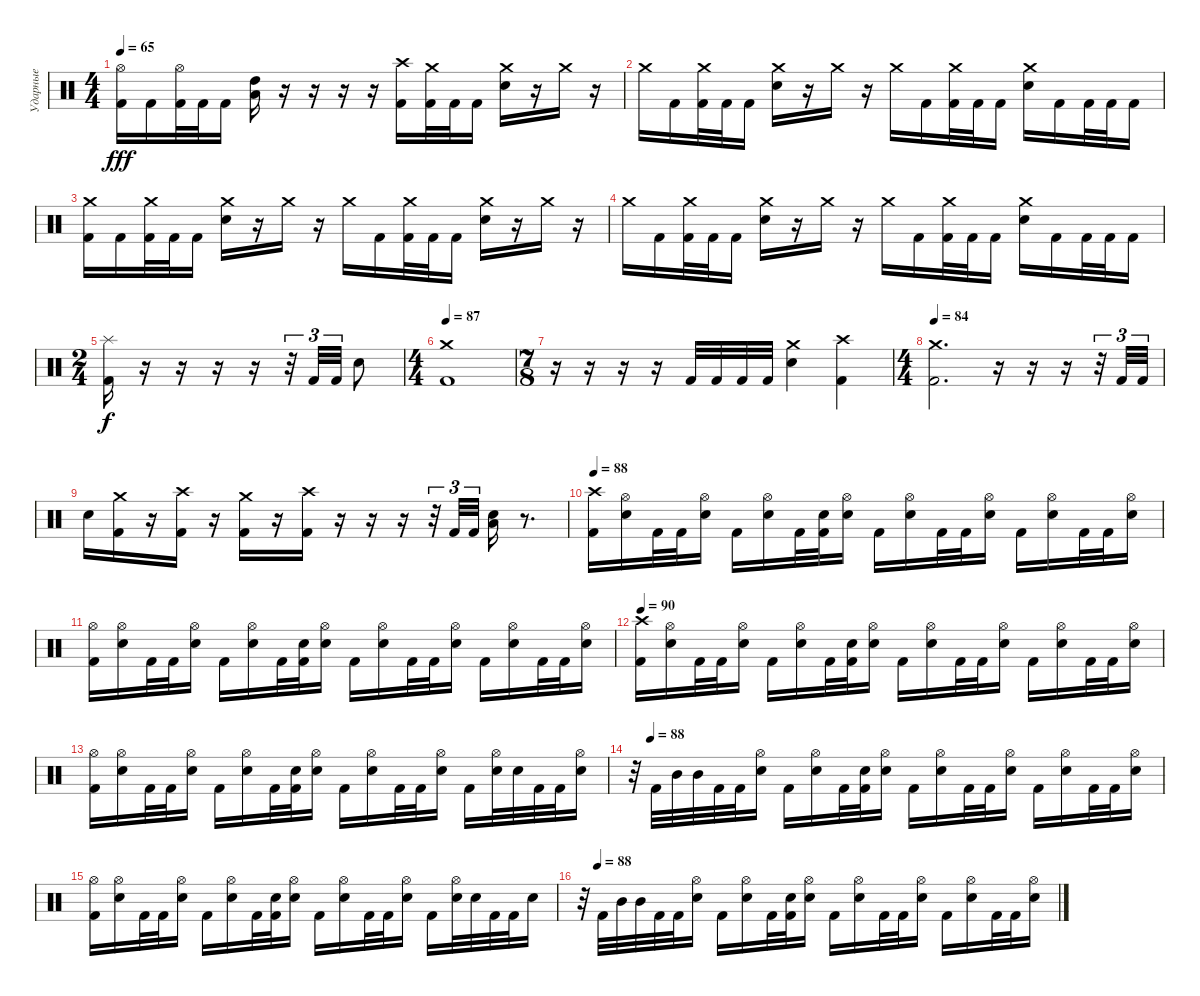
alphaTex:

\track ("Ударные" "Ударные") {instrument percussion}
\staff {score}
\articulation defaults
\ts (4 4)
\tempo 65
\clef neutral
\ks c
("Kick (hit) 2" "Hi-Hat (open)").16{dy fff} "Kick (hit) 2".16 ("Hi-Hat (open)" "Kick (hit) 2").32 "Kick (hit) 2".32 "Kick (hit) 2".16 ("High Tom (hit)" "Low Tom (hit)").16 r.16 r.16 r.16 r.16 ("Crash high (hit)" "Kick (hit) 2").16 ("Crash medium (hit)" "Kick (hit) 2").32 "Kick (hit) 2".32 "Kick (hit) 2".16 ("Crash medium (hit)" "Electric Snare (hit)").16 r.16 "Crash medium (hit)".16 r.16 |
"Crash medium (hit)".16 "Kick (hit) 2".16 ("Crash medium (hit)" "Kick (hit) 2").32 "Kick (hit) 2".32 "Kick (hit) 2".16 ("Crash medium (hit)" "Electric Snare (hit)").16 r.16 "Crash medium (hit)".16 r.16 "Crash medium (hit)".16 "Kick (hit) 2".16 ("Crash medium (hit)" "Kick (hit) 2").32 "Kick (hit) 2".32 "Kick (hit) 2".16 ("Crash medium (hit)" "Electric Snare (hit)").16 "Kick (hit) 2".16 "Kick (hit) 2".32 "Kick (hit) 2".32 "Kick (hit) 2".16 |
("Kick (hit) 2" "Crash medium (hit)").16 "Kick (hit) 2".16 ("Crash medium (hit)" "Kick (hit) 2").32 "Kick (hit) 2".32 "Kick (hit) 2".16 ("Crash medium (hit)" "Electric Snare (hit)").16 r.16 "Crash medium (hit)".16 r.16 "Crash medium (hit)".16 "Kick (hit) 2".16 ("Crash medium (hit)" "Kick (hit) 2").32 "Kick (hit) 2".32 "Kick (hit) 2".16 ("Crash medium (hit)" "Electric Snare (hit)").16 r.16 "Crash medium (hit)".16 r.16 |
"Crash medium (hit)".16 "Kick (hit) 2".16 ("Crash medium (hit)" "Kick (hit) 2").32 "Kick (hit) 2".32 "Kick (hit) 2".16 ("Crash medium (hit)" "Electric Snare (hit)").16 r.16 "Crash medium (hit)".16 r.16 "Crash medium (hit)".16 "Kick (hit) 2".16 ("Crash medium (hit)" "Kick (hit) 2").32 "Kick (hit) 2".32 "Kick (hit) 2".16 ("Crash medium (hit)" "Electric Snare (hit)").16 "Kick (hit) 2".16 "Kick (hit) 2".32 "Kick (hit) 2".32 "Kick (hit) 2".16 |
\ts (2 4)
("Splash (hit)" "Kick (hit) 2").16{dy f} r.16 r.16 r.16 r.16 r.32{tu (3 2)} "Kick (hit) 2".32{tu (3 2)} "Kick (hit) 2".32{tu (3 2)} "Electric Snare (hit)".8 |
\ts (4 4)
\tempo 87
("Crash medium (hit)" "Kick (hit) 2").1 |
\ts (7 8)
r.16 r.16 r.16 r.16 "Kick (hit) 2".32 "Kick (hit) 2".32 "Kick (hit) 2".32 "Kick (hit) 2".32 ("Crash medium (hit)" "Electric Snare (hit)").4 ("Crash high (hit)" "Kick (hit) 2").4 |
\ts (4 4)
\tempo 84
("Crash medium (hit)" "Kick (hit) 2").2{d} r.16 r.16 r.16 r.32{tu (3 2)} "Kick (hit) 2".32{tu (3 2)} "Kick (hit) 2".32{tu (3 2)} |
"Electric Snare (hit)".16 ("Kick (hit) 2" "Crash medium (hit)").16 r.16 ("Kick (hit) 2" "Crash high (hit)").16 r.16 ("Kick (hit) 2" "Crash medium (hit)").16 r.16 ("Kick (hit) 2" "Crash high (hit)").16 r.16 r.16 r.16 r.32{tu (3 2)} "Kick (hit) 2".32{tu (3 2)} "Kick (hit) 2".32{tu (3 2)} ("Electric Snare (hit)" "Low Tom (hit)").16 r.8{d} |
\tempo 88
("Crash high (hit)" "Kick (hit) 2").16 ("Hi-Hat (open)" "Electric Snare (hit)").16 "Kick (hit) 2".32 "Kick (hit) 2".32 ("Hi-Hat (open)" "Electric Snare (hit)").16 "Kick (hit) 2".16 ("Hi-Hat (open)" "Electric Snare (hit)").16 "Kick (hit) 2".32 ("Snare (hit)" "Kick (hit) 2").32 ("Hi-Hat (open)" "Electric Snare (hit)").16 "Kick (hit) 2".16 ("Hi-Hat (open)" "Electric Snare (hit)").16 "Kick (hit) 2".32 "Kick (hit) 2".32 ("Hi-Hat (open)" "Electric Snare (hit)").16 "Kick (hit) 2".16 ("Hi-Hat (open)" "Electric Snare (hit)").16 "Kick (hit) 2".32 "Kick (hit) 2".32 ("Hi-Hat (open)" "Electric Snare (hit)").16 |
("Hi-Hat (open)" "Kick (hit) 2").16 ("Hi-Hat (open)" "Electric Snare (hit)").16 "Kick (hit) 2".32 "Kick (hit) 2".32 ("Hi-Hat (open)" "Electric Snare (hit)").16 "Kick (hit) 2".16 ("Hi-Hat (open)" "Electric Snare (hit)").16 "Kick (hit) 2".32 ("Snare (hit)" "Kick (hit) 2").32 ("Hi-Hat (open)" "Electric Snare (hit)").16 "Kick (hit) 2".16 ("Hi-Hat (open)" "Electric Snare (hit)").16 "Kick (hit) 2".32 "Kick (hit) 2".32 ("Hi-Hat (open)" "Electric Snare (hit)").16 "Kick (hit) 2".16 ("Hi-Hat (open)" "Electric Snare (hit)").16 "Kick (hit) 2".32 "Kick (hit) 2".32 ("Hi-Hat (open)" "Electric Snare (hit)").16 |
\tempo 90
("Crash high (hit)" "Kick (hit) 2").16 ("Hi-Hat (open)" "Electric Snare (hit)").16 "Kick (hit) 2".32 "Kick (hit) 2".32 ("Hi-Hat (open)" "Electric Snare (hit)").16 "Kick (hit) 2".16 ("Hi-Hat (open)" "Electric Snare (hit)").16 "Kick (hit) 2".32 ("Snare (hit)" "Kick (hit) 2").32 ("Hi-Hat (open)" "Electric Snare (hit)").16 "Kick (hit) 2".16 ("Hi-Hat (open)" "Electric Snare (hit)").16 "Kick (hit) 2".32 "Kick (hit) 2".32 ("Hi-Hat (open)" "Electric Snare (hit)").16 "Kick (hit) 2".16 ("Hi-Hat (open)" "Electric Snare (hit)").16 "Kick (hit) 2".32 "Kick (hit) 2".32 ("Hi-Hat (open)" "Electric Snare (hit)").16 |
("Hi-Hat (open)" "Kick (hit) 2").16 ("Hi-Hat (open)" "Electric Snare (hit)").16 "Kick (hit) 2".32 "Kick (hit) 2".32 ("Hi-Hat (open)" "Electric Snare (hit)").16 "Kick (hit) 2".16 ("Hi-Hat (open)" "Electric Snare (hit)").16 "Kick (hit) 2".32 ("Snare (hit)" "Kick (hit) 2").32 ("Hi-Hat (open)" "Electric Snare (hit)").16 "Kick (hit) 2".16 ("Hi-Hat (open)" "Electric Snare (hit)").16 "Kick (hit) 2".32 "Kick (hit) 2".32 ("Hi-Hat (open)" "Electric Snare (hit)").16 "Kick (hit) 2".16 ("Hi-Hat (open)" "Electric Snare (hit)").32 "Electric Snare (hit)".32 "Kick (hit) 2".32 "Kick (hit) 2".32 ("Hi-Hat (open)" "Electric Snare (hit)").16 |
\tempo (88 0.03125)
r.32 "Kick (hit) 2".32 "Mid Tom (hit)".32 "Mid Tom (hit)".32 "Kick (hit) 2".32 "Kick (hit) 2".32 ("Hi-Hat (open)" "Electric Snare (hit)").16 "Kick (hit) 2".16 ("Hi-Hat (open)" "Electric Snare (hit)").16 "Kick (hit) 2".32 ("Snare (hit)" "Kick (hit) 2").32 ("Hi-Hat (open)" "Electric Snare (hit)").16 "Kick (hit) 2".16 ("Hi-Hat (open)" "Electric Snare (hit)").16 "Kick (hit) 2".32 "Kick (hit) 2".32 ("Hi-Hat (open)" "Electric Snare (hit)").16 "Kick (hit) 2".16 ("Hi-Hat (open)" "Electric Snare (hit)").16 "Kick (hit) 2".32 "Kick (hit) 2".32 ("Hi-Hat (open)" "Electric Snare (hit)").16 |
("Hi-Hat (open)" "Kick (hit) 2").16 ("Hi-Hat (open)" "Electric Snare (hit)").16 "Kick (hit) 2".32 "Kick (hit) 2".32 ("Hi-Hat (open)" "Electric Snare (hit)").16 "Kick (hit) 2".16 ("Hi-Hat (open)" "Electric Snare (hit)").16 "Kick (hit) 2".32 ("Snare (hit)" "Kick (hit) 2").32 ("Hi-Hat (open)" "Electric Snare (hit)").16 "Kick (hit) 2".16 ("Hi-Hat (open)" "Electric Snare (hit)").16 "Kick (hit) 2".32 "Kick (hit) 2".32 ("Hi-Hat (open)" "Electric Snare (hit)").16 "Kick (hit) 2".16 ("Hi-Hat (open)" "Electric Snare (hit)").32 "Electric Snare (hit)".32 "Kick (hit) 2".32 "Kick (hit) 2".32 "Electric Snare (hit)".16 |
\tempo (88 0.03125)
r.32 "Kick (hit) 2".32 "Mid Tom (hit)".32 "Mid Tom (hit)".32 "Kick (hit) 2".32 "Kick (hit) 2".32 ("Hi-Hat (open)" "Electric Snare (hit)").16 "Kick (hit) 2".16 ("Hi-Hat (open)" "Electric Snare (hit)").16 "Kick (hit) 2".32 ("Snare (hit)" "Kick (hit) 2").32 ("Hi-Hat (open)" "Electric Snare (hit)").16 "Kick (hit) 2".16 ("Hi-Hat (open)" "Electric Snare (hit)").16 "Kick (hit) 2".32 "Kick (hit) 2".32 ("Hi-Hat (open)" "Electric Snare (hit)").16 "Kick (hit) 2".16 ("Hi-Hat (open)" "Electric Snare (hit)").16 "Kick (hit) 2".32 "Kick (hit) 2".32 ("Hi-Hat (open)" "Electric Snare (hit)").16
